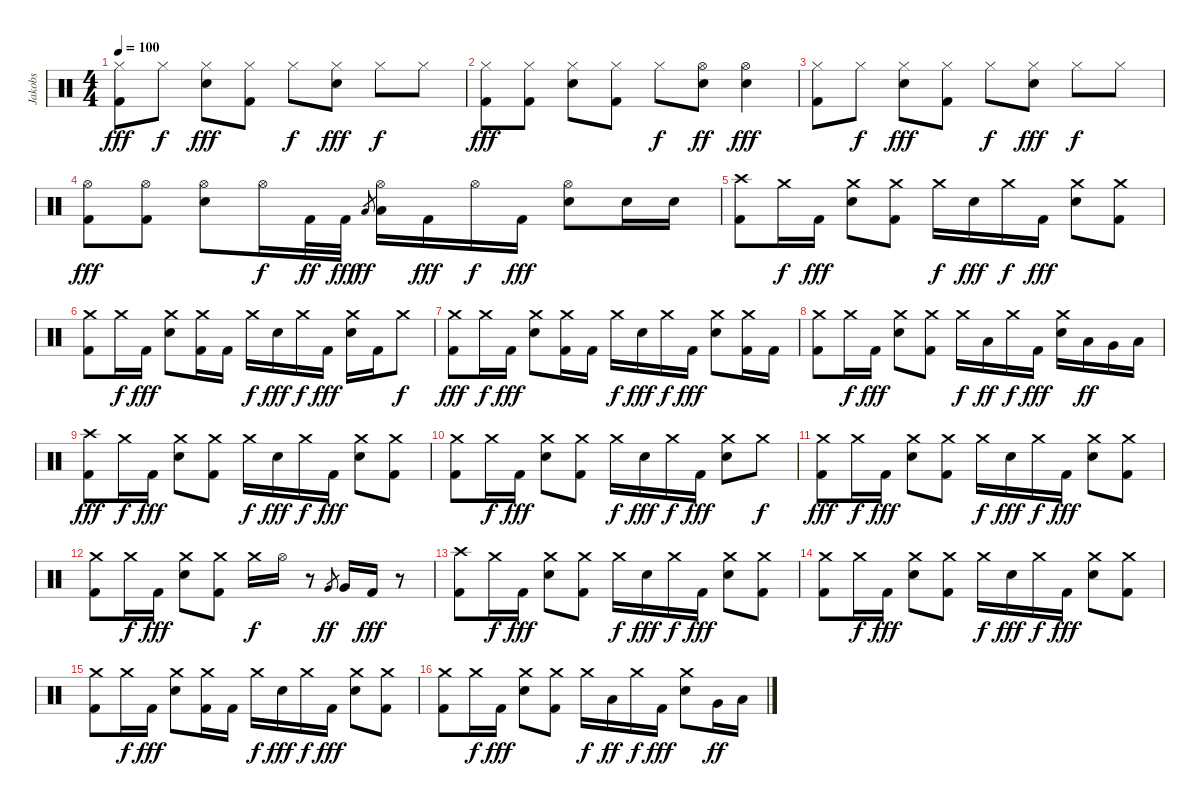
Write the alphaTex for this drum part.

\track ("Jakobs" "Jakobs") {instrument percussion}
\staff {score}
\articulation defaults
\ts (4 4)
\tempo 100
\clef neutral
\ks c
("Hi-Hat (closed)" "Kick (hit) 2").8{dy fff} "Hi-Hat (closed)".8{dy f} ("Hi-Hat (closed)" "Snare (hit) 2").8{dy fff} ("Hi-Hat (closed)" "Kick (hit) 2").8 "Hi-Hat (closed)".8{dy f} ("Hi-Hat (closed)" "Snare (hit) 2").8{dy fff} "Hi-Hat (closed)".8{dy f} "Hi-Hat (closed)".8 |
("Hi-Hat (closed)" "Kick (hit) 2").8{dy fff} ("Hi-Hat (closed)" "Kick (hit) 2").8 ("Hi-Hat (closed)" "Snare (hit) 2").8 ("Hi-Hat (closed)" "Kick (hit) 2").8 "Hi-Hat (closed)".8{dy f} ("Hi-Hat (open)" "Snare (hit) 2").8{dy ff} ("Hi-Hat (open)" "Snare (hit) 2").4{dy fff} |
("Hi-Hat (closed)" "Kick (hit) 2").8 "Hi-Hat (closed)".8{dy f} ("Hi-Hat (closed)" "Snare (hit) 2").8{dy fff} ("Hi-Hat (closed)" "Kick (hit) 2").8 "Hi-Hat (closed)".8{dy f} ("Hi-Hat (closed)" "Snare (hit) 2").8{dy fff} "Hi-Hat (closed)".8{dy f} "Hi-Hat (closed)".8 |
("Hi-Hat (open)" "Kick (hit) 2").8{dy fff} ("Hi-Hat (open)" "Kick (hit) 2").8 ("Hi-Hat (open)" "Snare (hit) 2").8 "Hi-Hat (open)".16{dy f} "Kick (hit) 2".32{dy ff} "Kick (hit) 2".32{dy fff} "Low Tom (hit)".8{gr dy ff} ("Hi-Hat (open)" "Low Tom (hit)").16 "Kick (hit) 2".16{dy fff} "Hi-Hat (open)".16{dy f} "Kick (hit) 2".16{dy fff} ("Hi-Hat (open)" "Snare (hit) 2").8 "Snare (hit) 2".16 "Snare (hit) 2".16 |
("Crash high (hit)" "Kick (hit) 2").8 "Crash medium (hit)".16{dy f} "Kick (hit) 2".16{dy fff} ("Crash medium (hit)" "Snare (hit) 2").8 ("Crash medium (hit)" "Kick (hit) 2").8 "Crash medium (hit)".16{dy f} "Snare (hit) 2".16{dy fff} "Crash medium (hit)".16{dy f} "Kick (hit) 2".16{dy fff} ("Crash medium (hit)" "Snare (hit) 2").8 ("Crash medium (hit)" "Kick (hit) 2").8 |
("Crash medium (hit)" "Kick (hit) 2").8 "Crash medium (hit)".16{dy f} "Kick (hit) 2".16{dy fff} ("Crash medium (hit)" "Snare (hit) 2").8 ("Crash medium (hit)" "Kick (hit) 2").16 "Kick (hit) 2".16 "Crash medium (hit)".16{dy f} "Snare (hit) 2".16{dy fff} "Crash medium (hit)".16{dy f} "Kick (hit) 2".16{dy fff} ("Crash medium (hit)" "Snare (hit) 2").16 "Kick (hit) 2".16 "Crash medium (hit)".8{dy f} |
("Crash medium (hit)" "Kick (hit) 2").8{dy fff} "Crash medium (hit)".16{dy f} "Kick (hit) 2".16{dy fff} ("Crash medium (hit)" "Snare (hit) 2").8 ("Crash medium (hit)" "Kick (hit) 2").16 "Kick (hit) 2".16 "Crash medium (hit)".16{dy f} "Snare (hit) 2".16{dy fff} "Crash medium (hit)".16{dy f} "Kick (hit) 2".16{dy fff} ("Crash medium (hit)" "Snare (hit) 2").8 ("Crash medium (hit)" "Kick (hit) 2").16 "Kick (hit) 2".16 |
("Crash medium (hit)" "Kick (hit) 2").8 "Crash medium (hit)".16{dy f} "Kick (hit) 2".16{dy fff} ("Crash medium (hit)" "Snare (hit) 2").8 ("Crash medium (hit)" "Kick (hit) 2").8 "Crash medium (hit)".16{dy f} "Low Tom (hit)".16{dy ff} "Crash medium (hit)".16{dy f} "Kick (hit) 2".16{dy fff} ("Crash medium (hit)" "Snare (hit) 2").16 "Low Tom (hit)".16{dy ff} "Very Low Tom (hit)".16 "Low Floor Tom (hit)".16 |
("Crash high (hit)" "Kick (hit) 2").8{dy fff} "Crash medium (hit)".16{dy f} "Kick (hit) 2".16{dy fff} ("Crash medium (hit)" "Snare (hit) 2").8 ("Crash medium (hit)" "Kick (hit) 2").8 "Crash medium (hit)".16{dy f} "Snare (hit) 2".16{dy fff} "Crash medium (hit)".16{dy f} "Kick (hit) 2".16{dy fff} ("Crash medium (hit)" "Snare (hit) 2").8 ("Crash medium (hit)" "Kick (hit) 2").8 |
("Crash medium (hit)" "Kick (hit) 2").8 "Crash medium (hit)".16{dy f} "Kick (hit) 2".16{dy fff} ("Crash medium (hit)" "Snare (hit) 2").8 ("Crash medium (hit)" "Kick (hit) 2").8 "Crash medium (hit)".16{dy f} "Snare (hit) 2".16{dy fff} "Crash medium (hit)".16{dy f} "Kick (hit) 2".16{dy fff} ("Crash medium (hit)" "Snare (hit) 2").8 "Crash medium (hit)".8{dy f} |
("Crash medium (hit)" "Kick (hit) 2").8{dy fff} "Crash medium (hit)".16{dy f} "Kick (hit) 2".16{dy fff} ("Crash medium (hit)" "Snare (hit) 2").8 ("Crash medium (hit)" "Kick (hit) 2").8 "Crash medium (hit)".16{dy f} "Snare (hit) 2".16{dy fff} "Crash medium (hit)".16{dy f} "Kick (hit) 2".16{dy fff} ("Crash medium (hit)" "Snare (hit) 2").8 ("Crash medium (hit)" "Kick (hit) 2").8 |
("Crash medium (hit)" "Kick (hit) 2").8 "Crash medium (hit)".16{dy f} "Kick (hit) 2".16{dy fff} ("Crash medium (hit)" "Snare (hit) 2").8 ("Crash medium (hit)" "Kick (hit) 2").8 "Crash medium (hit)".16{dy f} "Hi-Hat (open)".16 r.8 "Very Low Tom (hit)".8{gr dy ff} "Very Low Tom (hit)".16 "Kick (hit) 2".16{dy fff} r.8 |
("Crash high (hit)" "Kick (hit) 2").8 "Crash medium (hit)".16{dy f} "Kick (hit) 2".16{dy fff} ("Crash medium (hit)" "Snare (hit) 2").8 ("Crash medium (hit)" "Kick (hit) 2").8 "Crash medium (hit)".16{dy f} "Snare (hit) 2".16{dy fff} "Crash medium (hit)".16{dy f} "Kick (hit) 2".16{dy fff} ("Crash medium (hit)" "Snare (hit) 2").8 ("Crash medium (hit)" "Kick (hit) 2").8 |
("Crash medium (hit)" "Kick (hit) 2").8 "Crash medium (hit)".16{dy f} "Kick (hit) 2".16{dy fff} ("Crash medium (hit)" "Snare (hit) 2").8 ("Crash medium (hit)" "Kick (hit) 2").8 "Crash medium (hit)".16{dy f} "Snare (hit) 2".16{dy fff} "Crash medium (hit)".16{dy f} "Kick (hit) 2".16{dy fff} ("Crash medium (hit)" "Snare (hit) 2").8 ("Crash medium (hit)" "Kick (hit) 2").8 |
("Crash medium (hit)" "Kick (hit) 2").8 "Crash medium (hit)".16{dy f} "Kick (hit) 2".16{dy fff} ("Crash medium (hit)" "Snare (hit) 2").8 ("Crash medium (hit)" "Kick (hit) 2").16 "Kick (hit) 2".16 "Crash medium (hit)".16{dy f} "Snare (hit) 2".16{dy fff} "Crash medium (hit)".16{dy f} "Kick (hit) 2".16{dy fff} ("Crash medium (hit)" "Snare (hit) 2").8 ("Crash medium (hit)" "Kick (hit) 2").8 |
("Crash medium (hit)" "Kick (hit) 2").8 "Crash medium (hit)".16{dy f} "Kick (hit) 2".16{dy fff} ("Crash medium (hit)" "Snare (hit) 2").8 ("Crash medium (hit)" "Kick (hit) 2").8 "Crash medium (hit)".16{dy f} "Low Tom (hit)".16{dy ff} "Crash medium (hit)".16{dy f} "Kick (hit) 2".16{dy fff} ("Crash medium (hit)" "Snare (hit) 2").8 "Very Low Tom (hit)".16{dy ff} "Low Floor Tom (hit)".16
